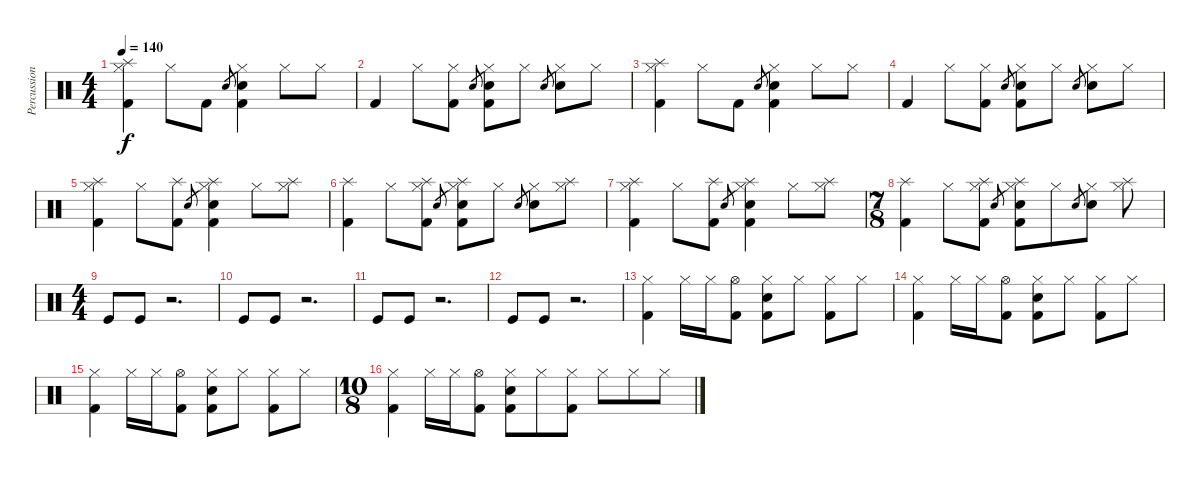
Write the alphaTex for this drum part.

\track ("Percussion" "Percussion") {instrument percussion}
\staff {score}
\articulation defaults
\ts (4 4)
\tempo 140
\clef neutral
\ks c
("Splash (hit)" "Hi-Hat (closed)" "Kick (hit) 2").4{dy f} "Hi-Hat (closed)".8 "Kick (hit) 2".8 "Hand Clap (hit)".8{gr} ("Hand Clap (hit)" "Hi-Hat (closed)" "Kick (hit) 2").4 "Hi-Hat (closed)".8 "Hi-Hat (closed)".8 |
"Kick (hit) 2".4 "Hi-Hat (closed)".8 ("Hi-Hat (closed)" "Kick (hit) 2").8 "Hand Clap (hit)".8{gr} ("Hand Clap (hit)" "Hi-Hat (closed)" "Kick (hit) 2").8 "Hi-Hat (closed)".8 "Hand Clap (hit)".8{gr} ("Hand Clap (hit)" "Hi-Hat (closed)").8 "Hi-Hat (closed)".8 |
("Splash (hit)" "Hi-Hat (closed)" "Kick (hit) 2").4 "Hi-Hat (closed)".8 "Kick (hit) 2".8 "Hand Clap (hit)".8{gr} ("Hand Clap (hit)" "Hi-Hat (closed)" "Kick (hit) 2").4 "Hi-Hat (closed)".8 "Hi-Hat (closed)".8 |
"Kick (hit) 2".4 "Hi-Hat (closed)".8 ("Hi-Hat (closed)" "Kick (hit) 2").8 "Hand Clap (hit)".8{gr} ("Hand Clap (hit)" "Hi-Hat (closed)" "Kick (hit) 2").8 "Hi-Hat (closed)".8 "Hand Clap (hit)".8{gr} ("Hand Clap (hit)" "Hi-Hat (closed)").8 "Hi-Hat (closed)".8 |
("Splash (hit)" "Hi-Hat (closed)" "Kick (hit) 2").4 "Hi-Hat (closed)".8 ("Splash (hit)" "Kick (hit) 2").8 "Hand Clap (hit)".8{gr} ("Splash (hit)" "Hand Clap (hit)" "Hi-Hat (closed)" "Kick (hit) 2").4 "Hi-Hat (closed)".8 ("Splash (hit)" "Hi-Hat (closed)").8 |
("Splash (hit)" "Kick (hit) 2").4 "Hi-Hat (closed)".8 ("Splash (hit)" "Hi-Hat (closed)" "Kick (hit) 2").8 "Hand Clap (hit)".8{gr} ("Splash (hit)" "Hand Clap (hit)" "Hi-Hat (closed)" "Kick (hit) 2").8 "Hi-Hat (closed)".8 "Hand Clap (hit)".8{gr} ("Hand Clap (hit)" "Hi-Hat (closed)").8 ("Splash (hit)" "Hi-Hat (closed)").8 |
("Splash (hit)" "Hi-Hat (closed)" "Kick (hit) 2").4 "Hi-Hat (closed)".8 ("Splash (hit)" "Kick (hit) 2").8 "Hand Clap (hit)".8{gr} ("Splash (hit)" "Hand Clap (hit)" "Hi-Hat (closed)" "Kick (hit) 2").4 "Hi-Hat (closed)".8 ("Splash (hit)" "Hi-Hat (closed)").8 |
\ts (7 8)
("Splash (hit)" "Kick (hit) 2").4 "Hi-Hat (closed)".8 ("Splash (hit)" "Hi-Hat (closed)" "Kick (hit) 2").8 "Hand Clap (hit)".8{gr} ("Splash (hit)" "Hand Clap (hit)" "Hi-Hat (closed)" "Kick (hit) 2").8 "Hi-Hat (closed)".8 "Hand Clap (hit)".8{gr} ("Hand Clap (hit)" "Hi-Hat (closed)").8 ("Splash (hit)" "Hi-Hat (closed)").8 |
\ts (4 4)
"Kick (hit)".8 "Kick (hit)".8 r.2{d} |
"Kick (hit)".8 "Kick (hit)".8 r.2{d} |
"Kick (hit)".8 "Kick (hit)".8 r.2{d} |
"Kick (hit)".8 "Kick (hit)".8 r.2{d} |
("Hi-Hat (closed)" "Kick (hit) 2").4 "Hi-Hat (closed)".16 "Hi-Hat (closed)".16 ("Hi-Hat (open)" "Kick (hit) 2").8 ("Hi-Hat (closed)" "Hand Clap (hit)" "Kick (hit) 2").8 "Hi-Hat (closed)".8 ("Hi-Hat (closed)" "Kick (hit) 2").8 "Hi-Hat (closed)".8 |
("Hi-Hat (closed)" "Kick (hit) 2").4 "Hi-Hat (closed)".16 "Hi-Hat (closed)".16 ("Hi-Hat (open)" "Kick (hit) 2").8 ("Hi-Hat (closed)" "Hand Clap (hit)" "Kick (hit) 2").8 "Hi-Hat (closed)".8 ("Hi-Hat (closed)" "Kick (hit) 2").8 "Hi-Hat (closed)".8 |
("Hi-Hat (closed)" "Kick (hit) 2").4 "Hi-Hat (closed)".16 "Hi-Hat (closed)".16 ("Hi-Hat (open)" "Kick (hit) 2").8 ("Hi-Hat (closed)" "Hand Clap (hit)" "Kick (hit) 2").8 "Hi-Hat (closed)".8 ("Hi-Hat (closed)" "Kick (hit) 2").8 "Hi-Hat (closed)".8 |
\ts (10 8)
("Hi-Hat (closed)" "Kick (hit) 2").4 "Hi-Hat (closed)".16 "Hi-Hat (closed)".16 ("Hi-Hat (open)" "Kick (hit) 2").8 ("Hi-Hat (closed)" "Hand Clap (hit)" "Kick (hit) 2").8 "Hi-Hat (closed)".8 ("Hi-Hat (closed)" "Kick (hit) 2").8 "Hi-Hat (closed)".8 "Hi-Hat (closed)".8 "Hi-Hat (closed)".8
